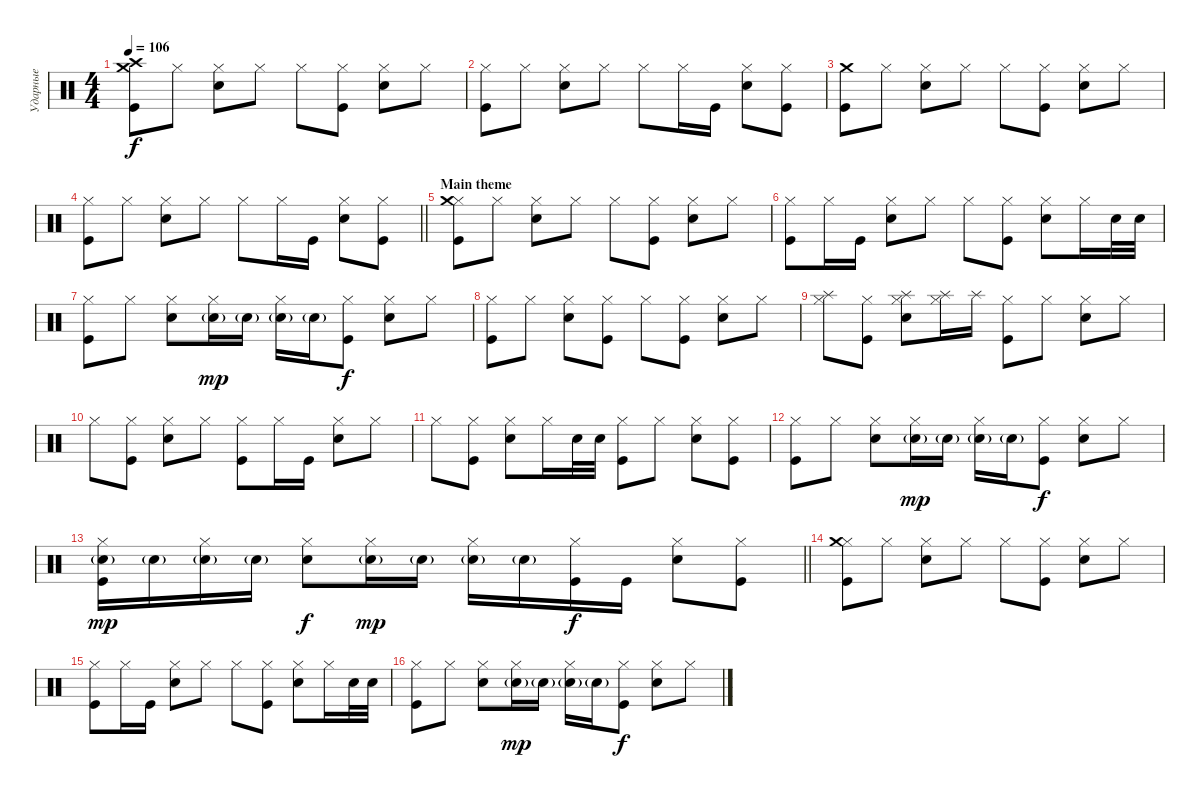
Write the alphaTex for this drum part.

\track ("Ударные" "Ударные") {instrument percussion}
\staff {score}
\articulation defaults
\ts (4 4)
\tempo 106
\clef neutral
\ks c
("Crash high (hit)" "Crash medium (hit)" "Kick (hit)").8{dy f} "Hi-Hat (closed)".8 ("Hi-Hat (closed)" "Snare (hit) 2").8 "Hi-Hat (closed)".8 "Hi-Hat (closed)".8 ("Hi-Hat (closed)" "Kick (hit)").8 ("Hi-Hat (closed)" "Snare (hit) 2").8 "Hi-Hat (closed)".8 |
("Hi-Hat (closed)" "Kick (hit)").8 "Hi-Hat (closed)".8 ("Hi-Hat (closed)" "Snare (hit) 2").8 "Hi-Hat (closed)".8 "Hi-Hat (closed)".8 "Hi-Hat (closed)".16 "Kick (hit)".16 ("Hi-Hat (closed)" "Snare (hit) 2").8 ("Hi-Hat (closed)" "Kick (hit)").8 |
("Crash medium (hit)" "Kick (hit)").8 "Hi-Hat (closed)".8 ("Hi-Hat (closed)" "Snare (hit) 2").8 "Hi-Hat (closed)".8 "Hi-Hat (closed)".8 ("Hi-Hat (closed)" "Kick (hit)").8 ("Hi-Hat (closed)" "Snare (hit) 2").8 "Hi-Hat (closed)".8 |
\barLineRight lightlight
("Hi-Hat (closed)" "Kick (hit)").8 "Hi-Hat (closed)".8 ("Hi-Hat (closed)" "Snare (hit) 2").8 "Hi-Hat (closed)".8 "Hi-Hat (closed)".8 "Hi-Hat (closed)".16 "Kick (hit)".16 ("Hi-Hat (closed)" "Snare (hit) 2").8 ("Hi-Hat (closed)" "Kick (hit)").8 |
\section ("" "Main theme")
("Hi-Hat (closed)" "Crash medium (hit)" "Kick (hit)").8 "Hi-Hat (closed)".8 ("Hi-Hat (closed)" "Snare (hit) 2").8 "Hi-Hat (closed)".8 "Hi-Hat (closed)".8 ("Hi-Hat (closed)" "Kick (hit)").8 ("Hi-Hat (closed)" "Snare (hit) 2").8 "Hi-Hat (closed)".8 |
("Hi-Hat (closed)" "Kick (hit)").8 "Hi-Hat (closed)".16 "Kick (hit)".16 ("Hi-Hat (closed)" "Snare (hit) 2").8 "Hi-Hat (closed)".8 "Hi-Hat (closed)".8 ("Hi-Hat (closed)" "Kick (hit)").8 ("Hi-Hat (closed)" "Snare (hit) 2").8 "Hi-Hat (closed)".16 "Snare (hit) 2".32 "Snare (hit) 2".32 |
("Hi-Hat (closed)" "Kick (hit)").8 "Hi-Hat (closed)".8 ("Hi-Hat (closed)" "Snare (hit) 2").8 ("Hi-Hat (closed)" "Snare (hit) 2"{g}).16{dy mp} "Snare (hit) 2"{g}.16 ("Hi-Hat (closed)" "Snare (hit) 2"{g}).16 "Snare (hit) 2"{g}.16 ("Hi-Hat (closed)" "Kick (hit)").8{dy f} ("Hi-Hat (closed)" "Snare (hit) 2").8 "Hi-Hat (closed)".8 |
("Hi-Hat (closed)" "Kick (hit)").8 "Hi-Hat (closed)".8 ("Hi-Hat (closed)" "Snare (hit) 2").8 ("Hi-Hat (closed)" "Kick (hit)").8 "Hi-Hat (closed)".8 ("Hi-Hat (closed)" "Kick (hit)").8 ("Hi-Hat (closed)" "Snare (hit) 2").8 "Hi-Hat (closed)".8 |
("Hi-Hat (closed)" "Splash (hit)").8 ("Hi-Hat (closed)" "Kick (hit)").8 ("Hi-Hat (closed)" "Splash (hit)" "Snare (hit) 2").8 ("Hi-Hat (closed)" "Splash (hit)").16 "Splash (hit)".16 ("Hi-Hat (closed)" "Kick (hit)").8 "Hi-Hat (closed)".8 ("Hi-Hat (closed)" "Snare (hit) 2").8 "Hi-Hat (closed)".8 |
"Hi-Hat (closed)".8 ("Hi-Hat (closed)" "Kick (hit)").8 ("Hi-Hat (closed)" "Snare (hit) 2").8 "Hi-Hat (closed)".8 ("Hi-Hat (closed)" "Kick (hit)").8 "Hi-Hat (closed)".16 "Kick (hit)".16 ("Hi-Hat (closed)" "Snare (hit) 2").8 "Hi-Hat (closed)".8 |
"Hi-Hat (closed)".8 ("Hi-Hat (closed)" "Kick (hit)").8 ("Hi-Hat (closed)" "Snare (hit) 2").8 "Hi-Hat (closed)".16 "Snare (hit) 2".32 "Snare (hit) 2".32 ("Hi-Hat (closed)" "Kick (hit)").8 "Hi-Hat (closed)".8 ("Hi-Hat (closed)" "Snare (hit) 2").8 ("Hi-Hat (closed)" "Kick (hit)").8 |
("Hi-Hat (closed)" "Kick (hit)").8 "Hi-Hat (closed)".8 ("Hi-Hat (closed)" "Snare (hit) 2").8 ("Hi-Hat (closed)" "Snare (hit) 2"{g}).16{dy mp} "Snare (hit) 2"{g}.16 ("Hi-Hat (closed)" "Snare (hit) 2"{g}).16 "Snare (hit) 2"{g}.16 ("Hi-Hat (closed)" "Kick (hit)").8{dy f} ("Hi-Hat (closed)" "Snare (hit) 2").8 "Hi-Hat (closed)".8 |
\barLineRight lightlight
("Hi-Hat (closed)" "Snare (hit) 2"{g} "Kick (hit)").16{dy mp} "Snare (hit) 2"{g}.16 ("Hi-Hat (closed)" "Snare (hit) 2"{g}).16 "Snare (hit) 2"{g}.16 ("Hi-Hat (closed)" "Snare (hit) 2").8{dy f} ("Hi-Hat (closed)" "Snare (hit) 2"{g}).16{dy mp} "Snare (hit) 2"{g}.16 ("Hi-Hat (closed)" "Snare (hit) 2"{g}).16 "Snare (hit) 2"{g}.16 ("Hi-Hat (closed)" "Kick (hit)").16{dy f} "Kick (hit)".16 ("Hi-Hat (closed)" "Snare (hit) 2").8 ("Hi-Hat (closed)" "Kick (hit)").8 |
("Hi-Hat (closed)" "Crash medium (hit)" "Kick (hit)").8 "Hi-Hat (closed)".8 ("Hi-Hat (closed)" "Snare (hit) 2").8 "Hi-Hat (closed)".8 "Hi-Hat (closed)".8 ("Hi-Hat (closed)" "Kick (hit)").8 ("Hi-Hat (closed)" "Snare (hit) 2").8 "Hi-Hat (closed)".8 |
("Hi-Hat (closed)" "Kick (hit)").8 "Hi-Hat (closed)".16 "Kick (hit)".16 ("Hi-Hat (closed)" "Snare (hit) 2").8 "Hi-Hat (closed)".8 "Hi-Hat (closed)".8 ("Hi-Hat (closed)" "Kick (hit)").8 ("Hi-Hat (closed)" "Snare (hit) 2").8 "Hi-Hat (closed)".16 "Snare (hit) 2".32 "Snare (hit) 2".32 |
("Hi-Hat (closed)" "Kick (hit)").8 "Hi-Hat (closed)".8 ("Hi-Hat (closed)" "Snare (hit) 2").8 ("Hi-Hat (closed)" "Snare (hit) 2"{g}).16{dy mp} "Snare (hit) 2"{g}.16 ("Hi-Hat (closed)" "Snare (hit) 2"{g}).16 "Snare (hit) 2"{g}.16 ("Hi-Hat (closed)" "Kick (hit)").8{dy f} ("Hi-Hat (closed)" "Snare (hit) 2").8 "Hi-Hat (closed)".8
